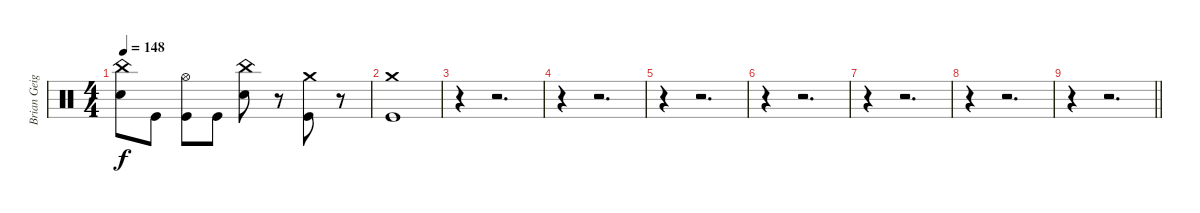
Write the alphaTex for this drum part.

\track ("Brian Geiger" "Brian Geig") {instrument percussion}
\staff {score}
\articulation defaults
\ts (4 4)
\tempo 148
\clef neutral
\ks c
("China (hit)" "Snare (hit) 2").8{dy f} "Kick (hit)".8 ("Hi-Hat (open)" "Kick (hit)").8 "Kick (hit)".8 ("China (hit)" "Snare (hit) 2").8 r.8 ("Crash medium (hit)" "Kick (hit)").8 r.8 |
("Crash medium (hit)" "Kick (hit)").1 |
r.4 r.2{d} |
r.4 r.2{d} |
r.4 r.2{d} |
r.4 r.2{d} |
r.4 r.2{d} |
r.4 r.2{d} |
\barLineRight lightlight
r.4 r.2{d}
